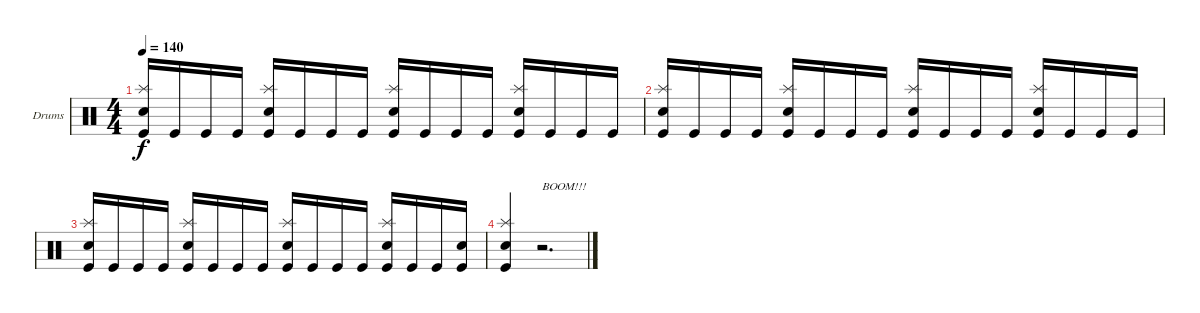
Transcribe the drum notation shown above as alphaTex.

\defaultSystemsLayout 4
\bracketExtendMode groupsimilarinstruments
\firstSystemTrackNameOrientation horizontal
\otherSystemsTrackNameOrientation horizontal
\track ("Ventor" "Drums") {instrument percussion}
\staff {score}
\articulation defaults
\ts (4 4)
\tempo 140
\clef neutral
\scale
0.5
\ks c
("Kick (hit)" "Splash (hit)" "Snare (hit) 2").16{dy f} "Kick (hit)".16 "Kick (hit)".16 "Kick (hit)".16 ("Kick (hit)" "Splash (hit)" "Snare (hit) 2").16 "Kick (hit)".16 "Kick (hit)".16 "Kick (hit)".16 ("Kick (hit)" "Splash (hit)" "Snare (hit) 2").16 "Kick (hit)".16 "Kick (hit)".16 "Kick (hit)".16 ("Kick (hit)" "Splash (hit)" "Snare (hit) 2").16 "Kick (hit)".16 "Kick (hit)".16 "Kick (hit)".16 |
\scale
0.5 ("Kick (hit)" "Splash (hit)" "Snare (hit) 2").16 "Kick (hit)".16 "Kick (hit)".16 "Kick (hit)".16 ("Kick (hit)" "Splash (hit)" "Snare (hit) 2").16 "Kick (hit)".16 "Kick (hit)".16 "Kick (hit)".16 ("Kick (hit)" "Splash (hit)" "Snare (hit) 2").16 "Kick (hit)".16 "Kick (hit)".16 "Kick (hit)".16 ("Kick (hit)" "Splash (hit)" "Snare (hit) 2").16 "Kick (hit)".16 "Kick (hit)".16 "Kick (hit)".16 |
("Kick (hit)" "Splash (hit)" "Snare (hit) 2").16 "Kick (hit)".16 "Kick (hit)".16 "Kick (hit)".16 ("Kick (hit)" "Splash (hit)" "Snare (hit) 2").16 "Kick (hit)".16 "Kick (hit)".16 "Kick (hit)".16 ("Kick (hit)" "Splash (hit)" "Snare (hit) 2").16 "Kick (hit)".16 "Kick (hit)".16 "Kick (hit)".16 ("Kick (hit)" "Splash (hit)" "Snare (hit) 2").16 "Kick (hit)".16 "Kick (hit)".16 ("Kick (hit)" "Snare (hit) 2").16 |
("Kick (hit)" "Splash (hit)" "Snare (hit) 2").4 r.2{d txt "BOOM!!!"}
